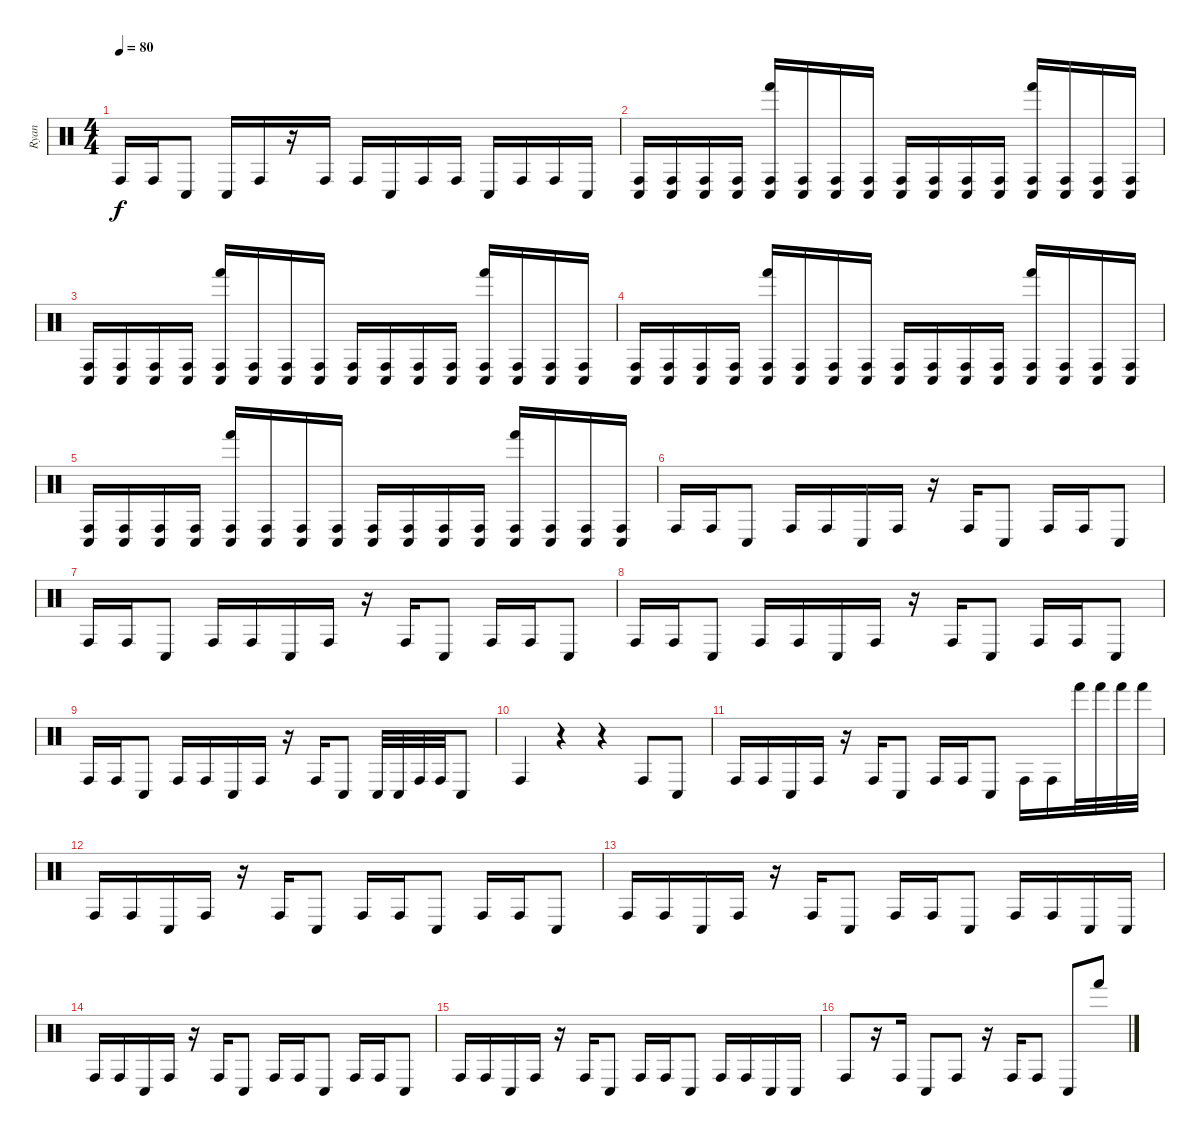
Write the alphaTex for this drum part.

\track ("Ryan" "Ryan") {instrument percussion}
\staff {score}
\articulation defaults
\ts (4 4)
\tempo 80
\clef neutral
\ks c "Conga high (hit)".16{dy f} "Conga high (hit)".16 "Conga low (hit)".8 "Conga low (hit)".16 "Conga high (hit)".16
r.16 "Conga high (hit)".16 "Conga high (hit)".16 "Conga low (hit)".16 "Conga high (hit)".16 "Conga high (hit)".16 "Conga low (hit)".16 "Conga high (hit)".16 "Conga high (hit)".16 "Conga low (hit)".16 |
("Conga low (hit)" "Conga high (hit)").16 ("Conga low (hit)" "Conga high (hit)").16 ("Conga low (hit)" "Conga high (hit)").16 ("Conga low (hit)" "Conga high (hit)").16 ("Hand (hit)" "Conga low (hit)" "Conga high (hit)").16 ("Conga low (hit)" "Conga high (hit)").16 ("Conga low (hit)" "Conga high (hit)").16 ("Conga low (hit)" "Conga high (hit)").16 ("Conga low (hit)" "Conga high (hit)").16 ("Conga low (hit)" "Conga high (hit)").16 ("Conga low (hit)" "Conga high (hit)").16 ("Conga low (hit)" "Conga high (hit)").16 ("Hand (hit)" "Conga low (hit)" "Conga high (hit)").16 ("Conga low (hit)" "Conga high (hit)").16 ("Conga low (hit)" "Conga high (hit)").16 ("Conga low (hit)" "Conga high (hit)").16 |
("Conga low (hit)" "Conga high (hit)").16 ("Conga low (hit)" "Conga high (hit)").16 ("Conga low (hit)" "Conga high (hit)").16 ("Conga low (hit)" "Conga high (hit)").16 ("Hand (hit)" "Conga low (hit)" "Conga high (hit)").16 ("Conga low (hit)" "Conga high (hit)").16 ("Conga low (hit)" "Conga high (hit)").16 ("Conga low (hit)" "Conga high (hit)").16 ("Conga low (hit)" "Conga high (hit)").16 ("Conga low (hit)" "Conga high (hit)").16 ("Conga low (hit)" "Conga high (hit)").16 ("Conga low (hit)" "Conga high (hit)").16 ("Hand (hit)" "Conga low (hit)" "Conga high (hit)").16 ("Conga low (hit)" "Conga high (hit)").16 ("Conga low (hit)" "Conga high (hit)").16 ("Conga low (hit)" "Conga high (hit)").16 |
("Conga low (hit)" "Conga high (hit)").16 ("Conga low (hit)" "Conga high (hit)").16 ("Conga low (hit)" "Conga high (hit)").16 ("Conga low (hit)" "Conga high (hit)").16 ("Hand (hit)" "Conga low (hit)" "Conga high (hit)").16 ("Conga low (hit)" "Conga high (hit)").16 ("Conga low (hit)" "Conga high (hit)").16 ("Conga low (hit)" "Conga high (hit)").16 ("Conga low (hit)" "Conga high (hit)").16 ("Conga low (hit)" "Conga high (hit)").16 ("Conga low (hit)" "Conga high (hit)").16 ("Conga low (hit)" "Conga high (hit)").16 ("Hand (hit)" "Conga low (hit)" "Conga high (hit)").16 ("Conga low (hit)" "Conga high (hit)").16 ("Conga low (hit)" "Conga high (hit)").16 ("Conga low (hit)" "Conga high (hit)").16 |
("Conga low (hit)" "Conga high (hit)").16 ("Conga low (hit)" "Conga high (hit)").16 ("Conga low (hit)" "Conga high (hit)").16 ("Conga low (hit)" "Conga high (hit)").16 ("Hand (hit)" "Conga low (hit)" "Conga high (hit)").16 ("Conga low (hit)" "Conga high (hit)").16 ("Conga low (hit)" "Conga high (hit)").16 ("Conga low (hit)" "Conga high (hit)").16 ("Conga low (hit)" "Conga high (hit)").16 ("Conga low (hit)" "Conga high (hit)").16 ("Conga low (hit)" "Conga high (hit)").16 ("Conga low (hit)" "Conga high (hit)").16 ("Hand (hit)" "Conga low (hit)" "Conga high (hit)").16 ("Conga low (hit)" "Conga high (hit)").16 ("Conga low (hit)" "Conga high (hit)").16 ("Conga low (hit)" "Conga high (hit)").16 |
"Conga high (hit)".16 "Conga high (hit)".16 "Conga low (hit)".8 "Conga high (hit)".16 "Conga high (hit)".16 "Conga low (hit)".16 "Conga high (hit)".16 r.16 "Conga high (hit)".16 "Conga low (hit)".8 "Conga high (hit)".16 "Conga high (hit)".16 "Conga low (hit)".8 |
"Conga high (hit)".16 "Conga high (hit)".16 "Conga low (hit)".8 "Conga high (hit)".16 "Conga high (hit)".16 "Conga low (hit)".16 "Conga high (hit)".16 r.16 "Conga high (hit)".16 "Conga low (hit)".8 "Conga high (hit)".16 "Conga high (hit)".16 "Conga low (hit)".8 |
"Conga high (hit)".16 "Conga high (hit)".16 "Conga low (hit)".8 "Conga high (hit)".16 "Conga high (hit)".16 "Conga low (hit)".16 "Conga high (hit)".16 r.16 "Conga high (hit)".16 "Conga low (hit)".8 "Conga high (hit)".16 "Conga high (hit)".16 "Conga low (hit)".8 |
"Conga high (hit)".16 "Conga high (hit)".16 "Conga low (hit)".8 "Conga high (hit)".16 "Conga high (hit)".16 "Conga low (hit)".16 "Conga high (hit)".16 r.16 "Conga high (hit)".16 "Conga low (hit)".8 "Conga low (hit)".32 "Conga low (hit)".32 "Conga high (hit)".32 "Conga high (hit)".32 "Conga low (hit)".8 |
"Conga high (hit)".4 r.4 r.4 "Conga high (hit)".8 "Conga low (hit)".8 |
"Conga high (hit)".16 "Conga high (hit)".16 "Conga low (hit)".16 "Conga high (hit)".16 r.16 "Conga high (hit)".16 "Conga low (hit)".8 "Conga high (hit)".16 "Conga high (hit)".16 "Conga low (hit)".8 "Conga high (hit)".16 "Conga high (hit)".16 "Hand (hit)".32 "Hand (hit)".32 "Hand (hit)".32 "Hand (hit)".32 |
"Conga high (hit)".16 "Conga high (hit)".16 "Conga low (hit)".16 "Conga high (hit)".16 r.16 "Conga high (hit)".16 "Conga low (hit)".8 "Conga high (hit)".16 "Conga high (hit)".16 "Conga low (hit)".8 "Conga high (hit)".16 "Conga high (hit)".16 "Conga low (hit)".8 |
"Conga high (hit)".16 "Conga high (hit)".16 "Conga low (hit)".16 "Conga high (hit)".16 r.16 "Conga high (hit)".16 "Conga low (hit)".8 "Conga high (hit)".16 "Conga high (hit)".16 "Conga low (hit)".8 "Conga high (hit)".16 "Conga high (hit)".16 "Conga low (hit)".16 "Conga low (hit)".16 |
"Conga high (hit)".16 "Conga high (hit)".16 "Conga low (hit)".16 "Conga high (hit)".16 r.16 "Conga high (hit)".16 "Conga low (hit)".8 "Conga high (hit)".16 "Conga high (hit)".16 "Conga low (hit)".8 "Conga high (hit)".16 "Conga high (hit)".16 "Conga low (hit)".8 |
"Conga high (hit)".16 "Conga high (hit)".16 "Conga low (hit)".16 "Conga high (hit)".16 r.16 "Conga high (hit)".16 "Conga low (hit)".8 "Conga high (hit)".16 "Conga high (hit)".16 "Conga low (hit)".8 "Conga high (hit)".16 "Conga high (hit)".16 "Conga low (hit)".16 "Conga low (hit)".16 |
"Conga high (hit)".8 r.16 "Conga high (hit)".16 "Conga low (hit)".8 "Conga high (hit)".8 r.16 "Conga high (hit)".16 "Conga high (hit)".8 "Conga low (hit)".8 "Hand (hit)".8
